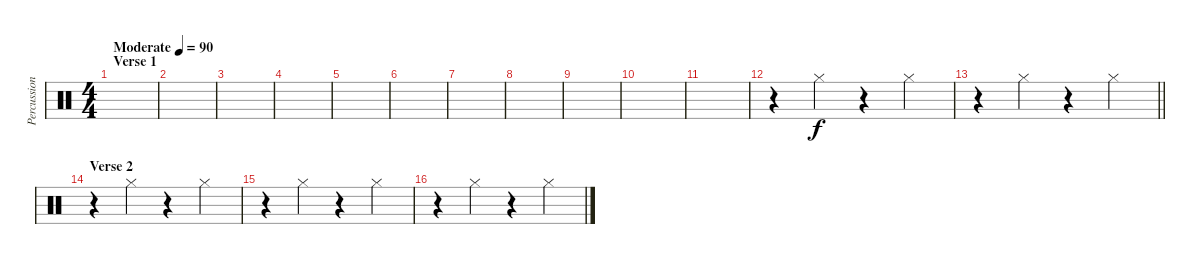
\track ("Percussion" "Percussion") {instrument percussion}
\staff {score}
\articulation defaults
\ts (4 4)
\section ("" "Verse 1")
\tempo (90 "Moderate")
\clef neutral
\ks c
|
|
|
|
|
|
|
|
|
|
|
r.4{volume 13} "Hi-Hat (closed)".4 r.4 "Hi-Hat (closed)".4 |
\barLineRight lightlight
r.4 "Hi-Hat (closed)".4 r.4 "Hi-Hat (closed)".4 |
\section ("" "Verse 2")
r.4{volume 13} "Hi-Hat (closed)".4 r.4 "Hi-Hat (closed)".4 |
r.4 "Hi-Hat (closed)".4 r.4 "Hi-Hat (closed)".4 |
r.4 "Hi-Hat (closed)".4 r.4 "Hi-Hat (closed)".4
